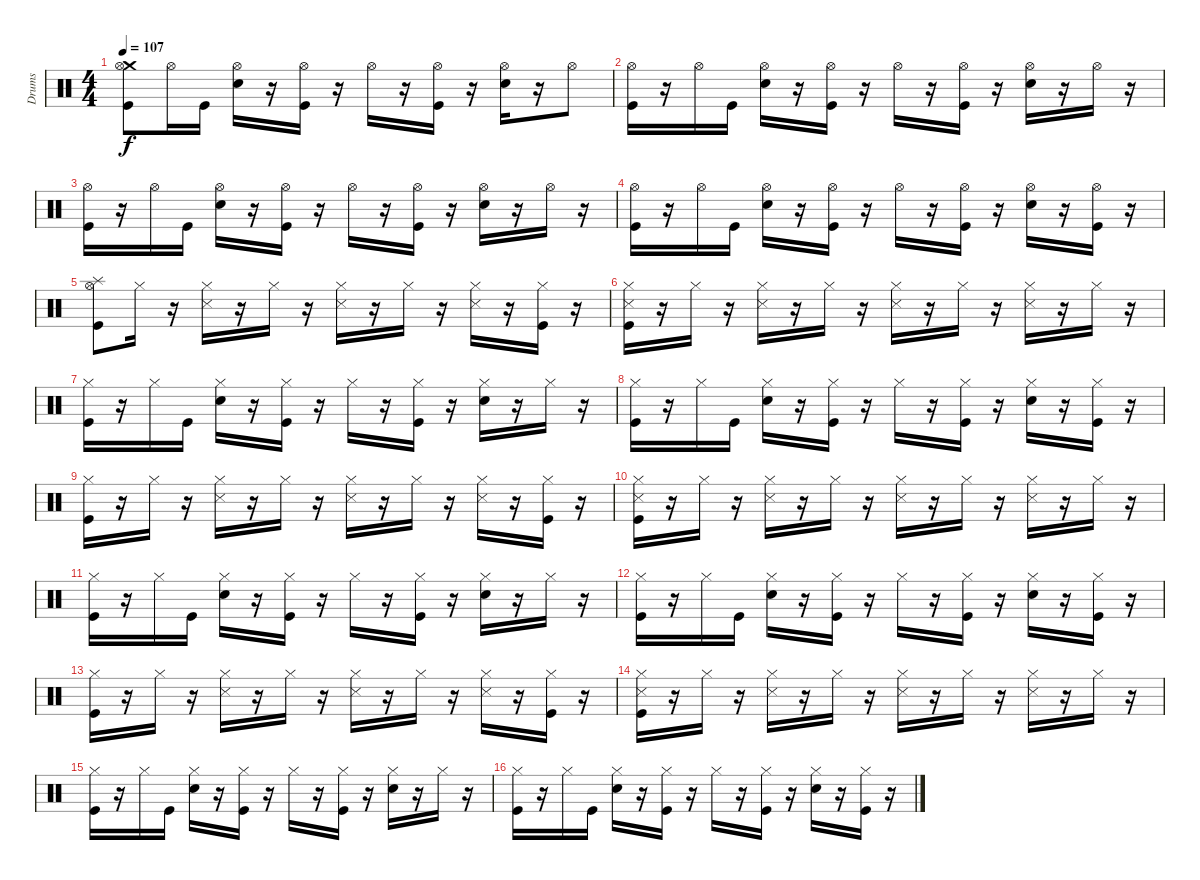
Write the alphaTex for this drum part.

\track ("Drums" "Drums") {instrument percussion}
\staff {score}
\articulation defaults
\ts (4 4)
\tempo 107
\clef neutral
\ks c
("Crash medium (hit)" "Kick (hit)" "Hi-Hat (open)").8{dy f} "Hi-Hat (open)".16 "Kick (hit)".16 ("Hi-Hat (open)" "Electric Snare (hit)").16 r.16 ("Hi-Hat (open)" "Kick (hit)").16 r.16 "Hi-Hat (open)".16 r.16 ("Hi-Hat (open)" "Kick (hit)").16 r.16 ("Hi-Hat (open)" "Electric Snare (hit)").16 r.16 "Hi-Hat (open)".8 |
("Kick (hit)" "Hi-Hat (open)").16 r.16 "Hi-Hat (open)".16 "Kick (hit)".16 ("Electric Snare (hit)" "Hi-Hat (open)").16 r.16 ("Hi-Hat (open)" "Kick (hit)").16 r.16 "Hi-Hat (open)".16 r.16 ("Kick (hit)" "Hi-Hat (open)").16 r.16 ("Electric Snare (hit)" "Hi-Hat (open)").16 r.16 "Hi-Hat (open)".16 r.16 |
("Kick (hit)" "Hi-Hat (open)").16 r.16 "Hi-Hat (open)".16 "Kick (hit)".16 ("Electric Snare (hit)" "Hi-Hat (open)").16 r.16 ("Kick (hit)" "Hi-Hat (open)").16 r.16 "Hi-Hat (open)".16 r.16 ("Hi-Hat (open)" "Kick (hit)").16 r.16 ("Hi-Hat (open)" "Electric Snare (hit)").16 r.16 "Hi-Hat (open)".16 r.16 |
("Hi-Hat (open)" "Kick (hit)").16 r.16 "Hi-Hat (open)".16 "Kick (hit)".16 ("Electric Snare (hit)" "Hi-Hat (open)").16 r.16 ("Hi-Hat (open)" "Kick (hit)").16 r.16 "Hi-Hat (open)".16 r.16 ("Kick (hit)" "Hi-Hat (open)").16 r.16 ("Hi-Hat (open)" "Electric Snare (hit)").16 r.16 ("Kick (hit)" "Hi-Hat (open)").16 r.16 |
("Splash (hit)" "Kick (hit)" "Hi-Hat (open)").8 "Hi-Hat (closed)".16 r.16 ("Hi-Hat (closed)" "Metronome (hit)").16 r.16 "Hi-Hat (closed)".16 r.16 ("Metronome (hit)" "Hi-Hat (closed)").16 r.16 "Hi-Hat (closed)".16 r.16 ("Metronome (hit)" "Hi-Hat (closed)").16 r.16 ("Kick (hit)" "Hi-Hat (closed)").16 r.16 |
("Hi-Hat (closed)" "Kick (hit)" "Metronome (hit)").16 r.16 "Hi-Hat (closed)".16 r.16 ("Metronome (hit)" "Hi-Hat (closed)").16 r.16 "Hi-Hat (closed)".16 r.16 ("Metronome (hit)" "Hi-Hat (closed)").16 r.16 "Hi-Hat (closed)".16 r.16 ("Metronome (hit)" "Hi-Hat (closed)").16 r.16 "Hi-Hat (closed)".16 r.16 |
("Hi-Hat (closed)" "Kick (hit)").16 r.16 "Hi-Hat (closed)".16 "Kick (hit)".16 ("Electric Snare (hit)" "Hi-Hat (closed)").16 r.16 ("Hi-Hat (closed)" "Kick (hit)").16 r.16 "Hi-Hat (closed)".16 r.16 ("Kick (hit)" "Hi-Hat (closed)").16 r.16 ("Electric Snare (hit)" "Hi-Hat (closed)").16 r.16 "Hi-Hat (closed)".16 r.16 |
("Kick (hit)" "Hi-Hat (closed)").16 r.16 "Hi-Hat (closed)".16 "Kick (hit)".16 ("Hi-Hat (closed)" "Electric Snare (hit)").16 r.16 ("Kick (hit)" "Hi-Hat (closed)").16 r.16 "Hi-Hat (closed)".16 r.16 ("Kick (hit)" "Hi-Hat (closed)").16 r.16 ("Hi-Hat (closed)" "Electric Snare (hit)").16 r.16 ("Kick (hit)" "Hi-Hat (closed)").16 r.16 |
("Kick (hit)" "Hi-Hat (closed)").16 r.16 "Hi-Hat (closed)".16 r.16 ("Metronome (hit)" "Hi-Hat (closed)").16 r.16 "Hi-Hat (closed)".16 r.16 ("Hi-Hat (closed)" "Metronome (hit)").16 r.16 "Hi-Hat (closed)".16 r.16 ("Hi-Hat (closed)" "Metronome (hit)").16 r.16 ("Kick (hit)" "Hi-Hat (closed)").16 r.16 |
("Kick (hit)" "Metronome (hit)" "Hi-Hat (closed)").16 r.16 "Hi-Hat (closed)".16 r.16 ("Metronome (hit)" "Hi-Hat (closed)").16 r.16 "Hi-Hat (closed)".16 r.16 ("Hi-Hat (closed)" "Metronome (hit)").16 r.16 "Hi-Hat (closed)".16 r.16 ("Hi-Hat (closed)" "Metronome (hit)").16 r.16 "Hi-Hat (closed)".16 r.16 |
("Hi-Hat (closed)" "Kick (hit)").16 r.16 "Hi-Hat (closed)".16 "Kick (hit)".16 ("Electric Snare (hit)" "Hi-Hat (closed)").16 r.16 ("Kick (hit)" "Hi-Hat (closed)").16 r.16 "Hi-Hat (closed)".16 r.16 ("Hi-Hat (closed)" "Kick (hit)").16 r.16 ("Electric Snare (hit)" "Hi-Hat (closed)").16 r.16 "Hi-Hat (closed)".16 r.16 |
("Kick (hit)" "Hi-Hat (closed)").16 r.16 "Hi-Hat (closed)".16 "Kick (hit)".16 ("Electric Snare (hit)" "Hi-Hat (closed)").16 r.16 ("Kick (hit)" "Hi-Hat (closed)").16 r.16 "Hi-Hat (closed)".16 r.16 ("Kick (hit)" "Hi-Hat (closed)").16 r.16 ("Electric Snare (hit)" "Hi-Hat (closed)").16 r.16 ("Hi-Hat (closed)" "Kick (hit)").16 r.16 |
("Kick (hit)" "Hi-Hat (closed)").16 r.16 "Hi-Hat (closed)".16 r.16 ("Metronome (hit)" "Hi-Hat (closed)").16 r.16 "Hi-Hat (closed)".16 r.16 ("Metronome (hit)" "Hi-Hat (closed)").16 r.16 "Hi-Hat (closed)".16 r.16 ("Hi-Hat (closed)" "Metronome (hit)").16 r.16 ("Kick (hit)" "Hi-Hat (closed)").16 r.16 |
("Kick (hit)" "Metronome (hit)" "Hi-Hat (closed)").16 r.16 "Hi-Hat (closed)".16 r.16 ("Metronome (hit)" "Hi-Hat (closed)").16 r.16 "Hi-Hat (closed)".16 r.16 ("Hi-Hat (closed)" "Metronome (hit)").16 r.16 "Hi-Hat (closed)".16 r.16 ("Hi-Hat (closed)" "Metronome (hit)").16 r.16 "Hi-Hat (closed)".16 r.16 |
("Kick (hit)" "Hi-Hat (closed)").16 r.16 "Hi-Hat (closed)".16 "Kick (hit)".16 ("Hi-Hat (closed)" "Electric Snare (hit)").16 r.16 ("Kick (hit)" "Hi-Hat (closed)").16 r.16 "Hi-Hat (closed)".16 r.16 ("Kick (hit)" "Hi-Hat (closed)").16 r.16 ("Electric Snare (hit)" "Hi-Hat (closed)").16 r.16 "Hi-Hat (closed)".16 r.16 |
("Hi-Hat (closed)" "Kick (hit)").16 r.16 "Hi-Hat (closed)".16 "Kick (hit)".16 ("Electric Snare (hit)" "Hi-Hat (closed)").16 r.16 ("Hi-Hat (closed)" "Kick (hit)").16 r.16 "Hi-Hat (closed)".16 r.16 ("Kick (hit)" "Hi-Hat (closed)").16 r.16 ("Electric Snare (hit)" "Hi-Hat (closed)").16 r.16 ("Hi-Hat (closed)" "Kick (hit)").16 r.16
